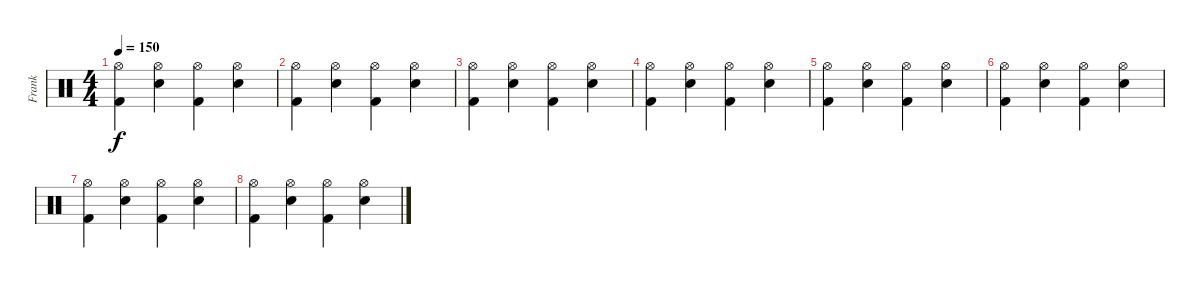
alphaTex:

\track ("Frank" "Frank") {instrument percussion}
\staff {score}
\articulation defaults
\ts (4 4)
\tempo 150
\clef neutral
\ks c
("Hi-Hat (open)" "Kick (hit) 2").4{dy f} ("Hi-Hat (open)" "Snare (hit) 2").4 ("Hi-Hat (open)" "Kick (hit) 2").4 ("Hi-Hat (open)" "Snare (hit) 2").4 |
("Hi-Hat (open)" "Kick (hit) 2").4 ("Hi-Hat (open)" "Snare (hit) 2").4 ("Hi-Hat (open)" "Kick (hit) 2").4 ("Hi-Hat (open)" "Snare (hit) 2").4 |
("Hi-Hat (open)" "Kick (hit) 2").4 ("Hi-Hat (open)" "Snare (hit) 2").4 ("Hi-Hat (open)" "Kick (hit) 2").4 ("Hi-Hat (open)" "Snare (hit) 2").4 |
("Hi-Hat (open)" "Kick (hit) 2").4 ("Hi-Hat (open)" "Snare (hit) 2").4 ("Hi-Hat (open)" "Kick (hit) 2").4 ("Hi-Hat (open)" "Snare (hit) 2").4 |
("Hi-Hat (open)" "Kick (hit) 2").4 ("Hi-Hat (open)" "Snare (hit) 2").4 ("Hi-Hat (open)" "Kick (hit) 2").4 ("Hi-Hat (open)" "Snare (hit) 2").4 |
("Hi-Hat (open)" "Kick (hit) 2").4 ("Hi-Hat (open)" "Snare (hit) 2").4 ("Hi-Hat (open)" "Kick (hit) 2").4 ("Hi-Hat (open)" "Snare (hit) 2").4 |
("Hi-Hat (open)" "Kick (hit) 2").4 ("Hi-Hat (open)" "Snare (hit) 2").4 ("Hi-Hat (open)" "Kick (hit) 2").4 ("Hi-Hat (open)" "Snare (hit) 2").4 |
("Hi-Hat (open)" "Kick (hit) 2").4 ("Hi-Hat (open)" "Snare (hit) 2").4 ("Hi-Hat (open)" "Kick (hit) 2").4 ("Hi-Hat (open)" "Snare (hit) 2").4
